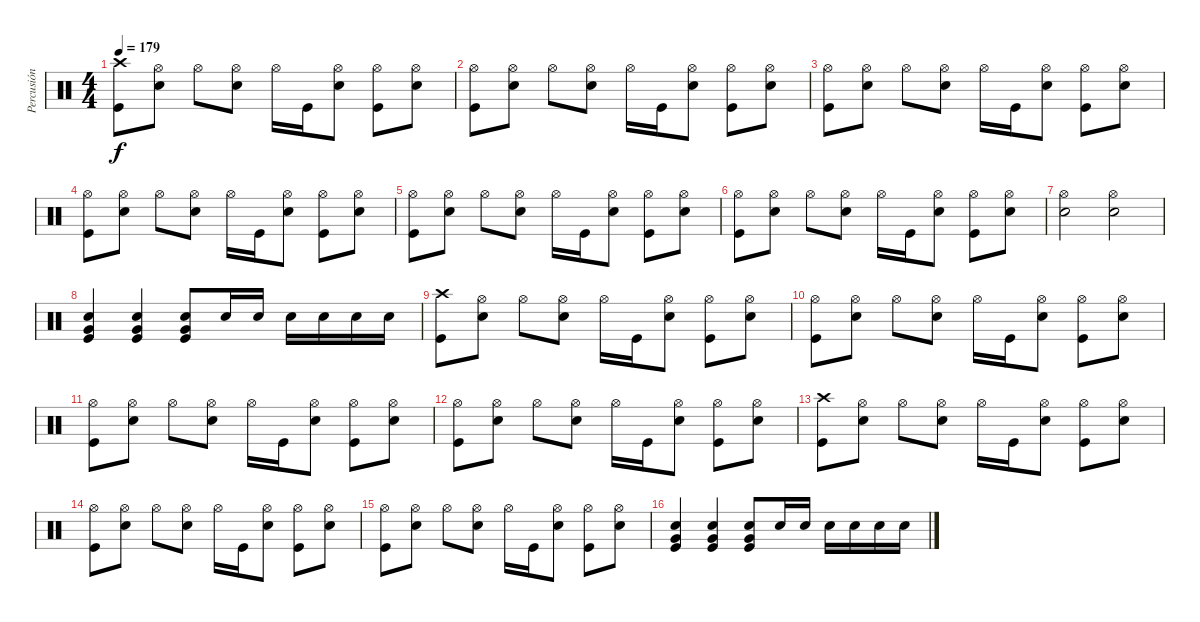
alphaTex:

\track ("Percusión" "Percusión") {instrument percussion}
\staff {score}
\articulation defaults
\ts (4 4)
\tempo 179
\clef neutral
\ks c
("Crash high (hit)" "Kick (hit)").8{dy f} ("Hi-Hat (open)" "Snare (hit) 2").8 "Hi-Hat (open)".8 ("Hi-Hat (open)" "Snare (hit) 2").8 "Hi-Hat (open)".16 "Kick (hit)".16 ("Hi-Hat (open)" "Snare (hit) 2").8 ("Hi-Hat (open)" "Kick (hit)").8 ("Hi-Hat (open)" "Snare (hit) 2").8 |
("Hi-Hat (open)" "Kick (hit)").8 ("Hi-Hat (open)" "Snare (hit) 2").8 "Hi-Hat (open)".8 ("Hi-Hat (open)" "Snare (hit) 2").8 "Hi-Hat (open)".16 "Kick (hit)".16 ("Hi-Hat (open)" "Snare (hit) 2").8 ("Hi-Hat (open)" "Kick (hit)").8 ("Hi-Hat (open)" "Snare (hit) 2").8 |
("Hi-Hat (open)" "Kick (hit)").8 ("Hi-Hat (open)" "Snare (hit) 2").8 "Hi-Hat (open)".8 ("Hi-Hat (open)" "Snare (hit) 2").8 "Hi-Hat (open)".16 "Kick (hit)".16 ("Hi-Hat (open)" "Snare (hit) 2").8 ("Hi-Hat (open)" "Kick (hit)").8 ("Hi-Hat (open)" "Snare (hit) 2").8 |
("Hi-Hat (open)" "Kick (hit)").8 ("Hi-Hat (open)" "Snare (hit) 2").8 "Hi-Hat (open)".8 ("Hi-Hat (open)" "Snare (hit) 2").8 "Hi-Hat (open)".16 "Kick (hit)".16 ("Hi-Hat (open)" "Snare (hit) 2").8 ("Hi-Hat (open)" "Kick (hit)").8 ("Hi-Hat (open)" "Snare (hit) 2").8 |
("Hi-Hat (open)" "Kick (hit)").8 ("Hi-Hat (open)" "Snare (hit) 2").8 "Hi-Hat (open)".8 ("Hi-Hat (open)" "Snare (hit) 2").8 "Hi-Hat (open)".16 "Kick (hit)".16 ("Hi-Hat (open)" "Snare (hit) 2").8 ("Hi-Hat (open)" "Kick (hit)").8 ("Hi-Hat (open)" "Snare (hit) 2").8 |
("Hi-Hat (open)" "Kick (hit)").8 ("Hi-Hat (open)" "Snare (hit) 2").8 "Hi-Hat (open)".8 ("Hi-Hat (open)" "Snare (hit) 2").8 "Hi-Hat (open)".16 "Kick (hit)".16 ("Hi-Hat (open)" "Snare (hit) 2").8 ("Hi-Hat (open)" "Kick (hit)").8 ("Hi-Hat (open)" "Snare (hit) 2").8 |
("Hi-Hat (open)" "Snare (hit) 2").2 ("Hi-Hat (open)" "Snare (hit) 2").2 |
("Very Low Tom (hit)" "Snare (hit) 2" "Kick (hit)").4 ("Very Low Tom (hit)" "Snare (hit) 2" "Kick (hit)").4 ("Very Low Tom (hit)" "Snare (hit) 2" "Kick (hit)").8 "Snare (hit) 2".16 "Snare (hit) 2".16 "Snare (hit) 2".16 "Snare (hit) 2".16 "Snare (hit) 2".16 "Snare (hit) 2".16 |
("Crash high (hit)" "Kick (hit)").8 ("Hi-Hat (open)" "Snare (hit) 2").8 "Hi-Hat (open)".8 ("Hi-Hat (open)" "Snare (hit) 2").8 "Hi-Hat (open)".16 "Kick (hit)".16 ("Hi-Hat (open)" "Snare (hit) 2").8 ("Hi-Hat (open)" "Kick (hit)").8 ("Hi-Hat (open)" "Snare (hit) 2").8 |
("Hi-Hat (open)" "Kick (hit)").8 ("Hi-Hat (open)" "Snare (hit) 2").8 "Hi-Hat (open)".8 ("Hi-Hat (open)" "Snare (hit) 2").8 "Hi-Hat (open)".16 "Kick (hit)".16 ("Hi-Hat (open)" "Snare (hit) 2").8 ("Hi-Hat (open)" "Kick (hit)").8 ("Hi-Hat (open)" "Snare (hit) 2").8 |
("Hi-Hat (open)" "Kick (hit)").8 ("Hi-Hat (open)" "Snare (hit) 2").8 "Hi-Hat (open)".8 ("Hi-Hat (open)" "Snare (hit) 2").8 "Hi-Hat (open)".16 "Kick (hit)".16 ("Hi-Hat (open)" "Snare (hit) 2").8 ("Hi-Hat (open)" "Kick (hit)").8 ("Hi-Hat (open)" "Snare (hit) 2").8 |
("Hi-Hat (open)" "Kick (hit)").8 ("Hi-Hat (open)" "Snare (hit) 2").8 "Hi-Hat (open)".8 ("Hi-Hat (open)" "Snare (hit) 2").8 "Hi-Hat (open)".16 "Kick (hit)".16 ("Hi-Hat (open)" "Snare (hit) 2").8 ("Hi-Hat (open)" "Kick (hit)").8 ("Hi-Hat (open)" "Snare (hit) 2").8 |
("Crash high (hit)" "Kick (hit)").8 ("Hi-Hat (open)" "Snare (hit) 2").8 "Hi-Hat (open)".8 ("Hi-Hat (open)" "Snare (hit) 2").8 "Hi-Hat (open)".16 "Kick (hit)".16 ("Hi-Hat (open)" "Snare (hit) 2").8 ("Hi-Hat (open)" "Kick (hit)").8 ("Hi-Hat (open)" "Snare (hit) 2").8 |
("Hi-Hat (open)" "Kick (hit)").8 ("Hi-Hat (open)" "Snare (hit) 2").8 "Hi-Hat (open)".8 ("Hi-Hat (open)" "Snare (hit) 2").8 "Hi-Hat (open)".16 "Kick (hit)".16 ("Hi-Hat (open)" "Snare (hit) 2").8 ("Hi-Hat (open)" "Kick (hit)").8 ("Hi-Hat (open)" "Snare (hit) 2").8 |
("Hi-Hat (open)" "Kick (hit)").8 ("Hi-Hat (open)" "Snare (hit) 2").8 "Hi-Hat (open)".8 ("Hi-Hat (open)" "Snare (hit) 2").8 "Hi-Hat (open)".16 "Kick (hit)".16 ("Hi-Hat (open)" "Snare (hit) 2").8 ("Hi-Hat (open)" "Kick (hit)").8 ("Hi-Hat (open)" "Snare (hit) 2").8 |
("Very Low Tom (hit)" "Snare (hit) 2" "Kick (hit)").4 ("Very Low Tom (hit)" "Snare (hit) 2" "Kick (hit)").4 ("Very Low Tom (hit)" "Snare (hit) 2" "Kick (hit)").8 "Snare (hit) 2".16 "Snare (hit) 2".16 "Snare (hit) 2".16 "Snare (hit) 2".16 "Snare (hit) 2".16 "Snare (hit) 2".16
